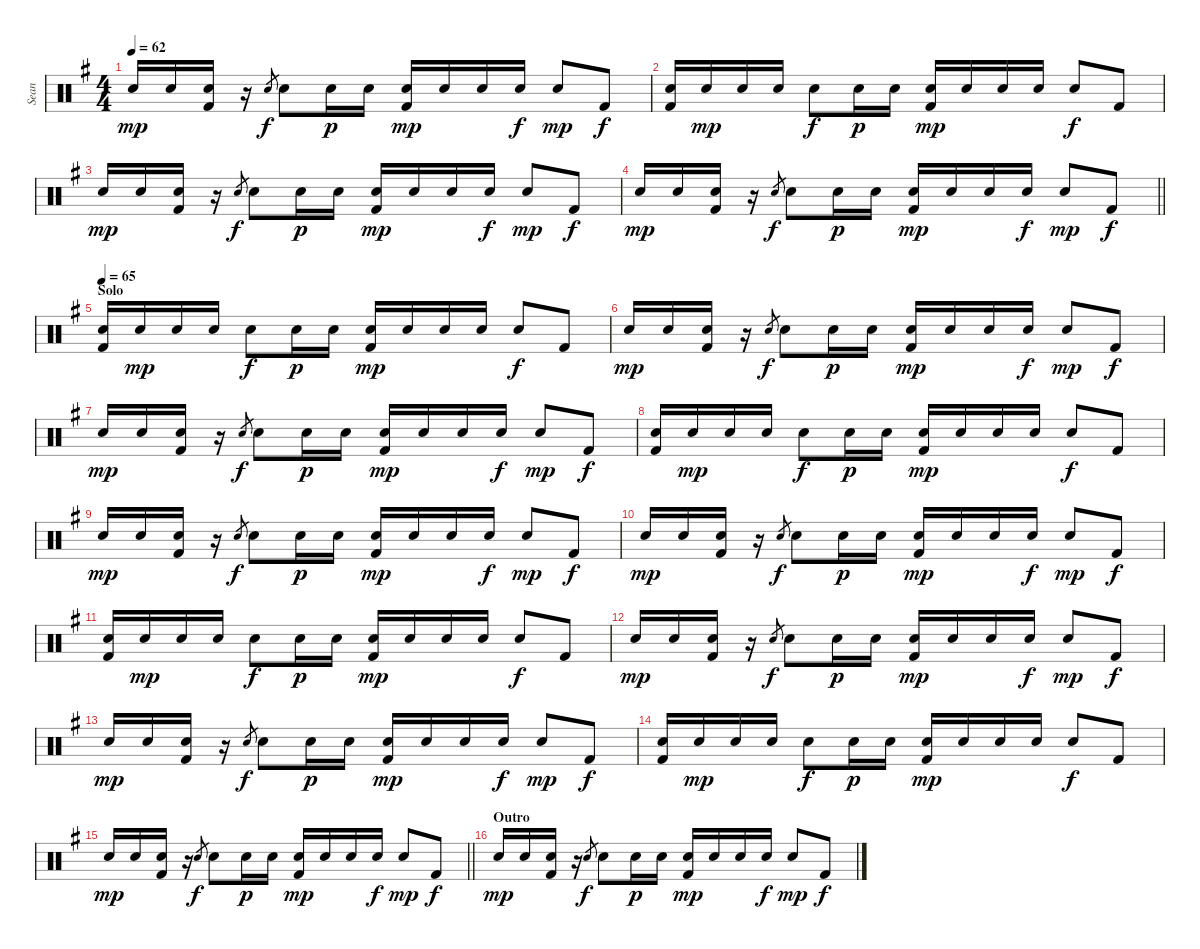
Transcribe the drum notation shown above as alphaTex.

\track ("Sean" "Sean") {instrument percussion}
\staff {score}
\articulation defaults
\ts (4 4)
\tempo 62
\clef neutral
\ks eminor "Electric Snare (hit)".16{dy mp} "Electric Snare (hit)".16
("Electric Snare (hit)" "Kick (hit) 2").16 r.16 "Electric Snare (hit)".8{gr dy f} "Electric Snare (hit)".8 "Electric Snare (hit)".16{dy p} "Electric Snare (hit)".16 ("Electric Snare (hit)" "Kick (hit) 2").16{dy mp} "Electric Snare (hit)".16 "Electric Snare (hit)".16 "Electric Snare (hit)".16{dy f} "Electric Snare (hit)".8{dy mp} "Kick (hit) 2".8{dy f} |
("Electric Snare (hit)" "Kick (hit) 2").16 "Electric Snare (hit)".16{dy mp} "Electric Snare (hit)".16 "Electric Snare (hit)".16 "Electric Snare (hit)".8{dy f} "Electric Snare (hit)".16{dy p} "Electric Snare (hit)".16 ("Electric Snare (hit)" "Kick (hit) 2").16{dy mp} "Electric Snare (hit)".16 "Electric Snare (hit)".16 "Electric Snare (hit)".16 "Electric Snare (hit)".8{dy f} "Kick (hit) 2".8 |
"Electric Snare (hit)".16{dy mp} "Electric Snare (hit)".16 ("Electric Snare (hit)" "Kick (hit) 2").16 r.16 "Electric Snare (hit)".8{gr dy f} "Electric Snare (hit)".8 "Electric Snare (hit)".16{dy p} "Electric Snare (hit)".16 ("Electric Snare (hit)" "Kick (hit) 2").16{dy mp} "Electric Snare (hit)".16 "Electric Snare (hit)".16 "Electric Snare (hit)".16{dy f} "Electric Snare (hit)".8{dy mp} "Kick (hit) 2".8{dy f} |
\barLineRight lightlight "Electric Snare (hit)".16{dy mp} "Electric Snare (hit)".16
("Electric Snare (hit)" "Kick (hit) 2").16 r.16 "Electric Snare (hit)".8{gr dy f} "Electric Snare (hit)".8 "Electric Snare (hit)".16{dy p} "Electric Snare (hit)".16 ("Electric Snare (hit)" "Kick (hit) 2").16{dy mp} "Electric Snare (hit)".16 "Electric Snare (hit)".16 "Electric Snare (hit)".16{dy f} "Electric Snare (hit)".8{dy mp} "Kick (hit) 2".8{dy f} |
\section ("" "Solo")
\tempo 65
("Electric Snare (hit)" "Kick (hit) 2").16 "Electric Snare (hit)".16{dy mp} "Electric Snare (hit)".16 "Electric Snare (hit)".16 "Electric Snare (hit)".8{dy f} "Electric Snare (hit)".16{dy p} "Electric Snare (hit)".16 ("Electric Snare (hit)" "Kick (hit) 2").16{dy mp} "Electric Snare (hit)".16 "Electric Snare (hit)".16 "Electric Snare (hit)".16 "Electric Snare (hit)".8{dy f} "Kick (hit) 2".8 |
"Electric Snare (hit)".16{dy mp} "Electric Snare (hit)".16 ("Electric Snare (hit)" "Kick (hit) 2").16 r.16 "Electric Snare (hit)".8{gr dy f} "Electric Snare (hit)".8 "Electric Snare (hit)".16{dy p} "Electric Snare (hit)".16 ("Electric Snare (hit)" "Kick (hit) 2").16{dy mp} "Electric Snare (hit)".16 "Electric Snare (hit)".16 "Electric Snare (hit)".16{dy f} "Electric Snare (hit)".8{dy mp} "Kick (hit) 2".8{dy f} |
"Electric Snare (hit)".16{dy mp} "Electric Snare (hit)".16 ("Electric Snare (hit)" "Kick (hit) 2").16 r.16 "Electric Snare (hit)".8{gr dy f} "Electric Snare (hit)".8 "Electric Snare (hit)".16{dy p} "Electric Snare (hit)".16 ("Electric Snare (hit)" "Kick (hit) 2").16{dy mp} "Electric Snare (hit)".16 "Electric Snare (hit)".16 "Electric Snare (hit)".16{dy f} "Electric Snare (hit)".8{dy mp} "Kick (hit) 2".8{dy f} |
("Electric Snare (hit)" "Kick (hit) 2").16 "Electric Snare (hit)".16{dy mp} "Electric Snare (hit)".16 "Electric Snare (hit)".16 "Electric Snare (hit)".8{dy f} "Electric Snare (hit)".16{dy p} "Electric Snare (hit)".16 ("Electric Snare (hit)" "Kick (hit) 2").16{dy mp} "Electric Snare (hit)".16 "Electric Snare (hit)".16 "Electric Snare (hit)".16 "Electric Snare (hit)".8{dy f} "Kick (hit) 2".8 |
"Electric Snare (hit)".16{dy mp} "Electric Snare (hit)".16 ("Electric Snare (hit)" "Kick (hit) 2").16 r.16 "Electric Snare (hit)".8{gr dy f} "Electric Snare (hit)".8 "Electric Snare (hit)".16{dy p} "Electric Snare (hit)".16 ("Electric Snare (hit)" "Kick (hit) 2").16{dy mp} "Electric Snare (hit)".16 "Electric Snare (hit)".16 "Electric Snare (hit)".16{dy f} "Electric Snare (hit)".8{dy mp} "Kick (hit) 2".8{dy f} |
"Electric Snare (hit)".16{dy mp} "Electric Snare (hit)".16 ("Electric Snare (hit)" "Kick (hit) 2").16 r.16 "Electric Snare (hit)".8{gr dy f} "Electric Snare (hit)".8 "Electric Snare (hit)".16{dy p} "Electric Snare (hit)".16 ("Electric Snare (hit)" "Kick (hit) 2").16{dy mp} "Electric Snare (hit)".16 "Electric Snare (hit)".16 "Electric Snare (hit)".16{dy f} "Electric Snare (hit)".8{dy mp} "Kick (hit) 2".8{dy f} |
("Electric Snare (hit)" "Kick (hit) 2").16 "Electric Snare (hit)".16{dy mp} "Electric Snare (hit)".16 "Electric Snare (hit)".16 "Electric Snare (hit)".8{dy f} "Electric Snare (hit)".16{dy p} "Electric Snare (hit)".16 ("Electric Snare (hit)" "Kick (hit) 2").16{dy mp} "Electric Snare (hit)".16 "Electric Snare (hit)".16 "Electric Snare (hit)".16 "Electric Snare (hit)".8{dy f} "Kick (hit) 2".8 |
"Electric Snare (hit)".16{dy mp} "Electric Snare (hit)".16 ("Electric Snare (hit)" "Kick (hit) 2").16 r.16 "Electric Snare (hit)".8{gr dy f} "Electric Snare (hit)".8 "Electric Snare (hit)".16{dy p} "Electric Snare (hit)".16 ("Electric Snare (hit)" "Kick (hit) 2").16{dy mp} "Electric Snare (hit)".16 "Electric Snare (hit)".16 "Electric Snare (hit)".16{dy f} "Electric Snare (hit)".8{dy mp} "Kick (hit) 2".8{dy f} |
"Electric Snare (hit)".16{dy mp} "Electric Snare (hit)".16 ("Electric Snare (hit)" "Kick (hit) 2").16 r.16 "Electric Snare (hit)".8{gr dy f} "Electric Snare (hit)".8 "Electric Snare (hit)".16{dy p} "Electric Snare (hit)".16 ("Electric Snare (hit)" "Kick (hit) 2").16{dy mp} "Electric Snare (hit)".16 "Electric Snare (hit)".16 "Electric Snare (hit)".16{dy f} "Electric Snare (hit)".8{dy mp} "Kick (hit) 2".8{dy f} |
("Electric Snare (hit)" "Kick (hit) 2").16 "Electric Snare (hit)".16{dy mp} "Electric Snare (hit)".16 "Electric Snare (hit)".16 "Electric Snare (hit)".8{dy f} "Electric Snare (hit)".16{dy p} "Electric Snare (hit)".16 ("Electric Snare (hit)" "Kick (hit) 2").16{dy mp} "Electric Snare (hit)".16 "Electric Snare (hit)".16 "Electric Snare (hit)".16 "Electric Snare (hit)".8{dy f} "Kick (hit) 2".8 |
\barLineRight lightlight "Electric Snare (hit)".16{dy mp} "Electric Snare (hit)".16
("Electric Snare (hit)" "Kick (hit) 2").16 r.16 "Electric Snare (hit)".8{gr dy f} "Electric Snare (hit)".8 "Electric Snare (hit)".16{dy p} "Electric Snare (hit)".16 ("Electric Snare (hit)" "Kick (hit) 2").16{dy mp} "Electric Snare (hit)".16 "Electric Snare (hit)".16 "Electric Snare (hit)".16{dy f} "Electric Snare (hit)".8{dy mp} "Kick (hit) 2".8{dy f} |
\section ("" "Outro")
"Electric Snare (hit)".16{dy mp} "Electric Snare (hit)".16 ("Electric Snare (hit)" "Kick (hit) 2").16 r.16 "Electric Snare (hit)".8{gr dy f} "Electric Snare (hit)".8 "Electric Snare (hit)".16{dy p} "Electric Snare (hit)".16 ("Electric Snare (hit)" "Kick (hit) 2").16{dy mp} "Electric Snare (hit)".16 "Electric Snare (hit)".16 "Electric Snare (hit)".16{dy f} "Electric Snare (hit)".8{dy mp} "Kick (hit) 2".8{dy f}
